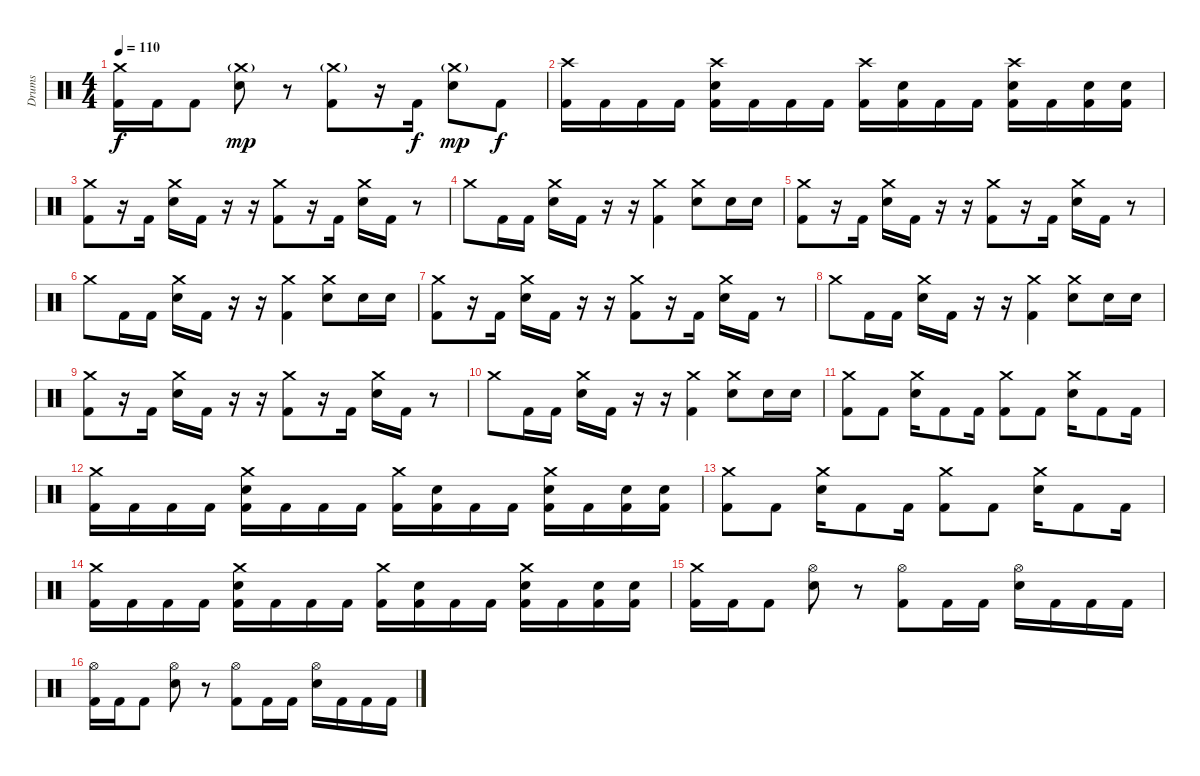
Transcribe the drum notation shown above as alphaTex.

\track ("Drums" "Drums") {instrument percussion}
\staff {score}
\articulation defaults
\ts (4 4)
\tempo 110
\clef neutral
\ks c
("Crash medium (hit)" "Kick (hit) 2").16{dy f} "Kick (hit) 2".16 "Kick (hit) 2".8 ("Crash medium (hit)"{g} "Electric Snare (hit)").8{dy mp} r.8 ("Crash medium (hit)"{g} "Kick (hit) 2").8 r.16 "Kick (hit) 2".16{dy f} ("Crash medium (hit)"{g} "Electric Snare (hit)").8{dy mp} "Kick (hit) 2".8{dy f} |
("Crash high (hit)" "Kick (hit) 2").16 "Kick (hit) 2".16 "Kick (hit) 2".16 "Kick (hit) 2".16 ("Crash high (hit)" "Electric Snare (hit)" "Kick (hit) 2").16 "Kick (hit) 2".16 "Kick (hit) 2".16 "Kick (hit) 2".16 ("Crash high (hit)" "Kick (hit) 2").16 ("Electric Snare (hit)" "Kick (hit) 2").16 "Kick (hit) 2".16 "Kick (hit) 2".16 ("Crash high (hit)" "Electric Snare (hit)" "Kick (hit) 2").16 "Kick (hit) 2".16 ("Electric Snare (hit)" "Kick (hit) 2").16 ("Electric Snare (hit)" "Kick (hit) 2").16 |
("Crash medium (hit)" "Kick (hit) 2").8 r.16 "Kick (hit) 2".16 ("Crash medium (hit)" "Electric Snare (hit)").16 "Kick (hit) 2".16 r.16 r.16 ("Crash medium (hit)" "Kick (hit) 2").8 r.16 "Kick (hit) 2".16 ("Crash medium (hit)" "Electric Snare (hit)").16 "Kick (hit) 2".16 r.8 |
"Crash medium (hit)".8 "Kick (hit) 2".16 "Kick (hit) 2".16 ("Crash medium (hit)" "Electric Snare (hit)").16 "Kick (hit) 2".16 r.16 r.16 ("Crash medium (hit)" "Kick (hit) 2").4 ("Crash medium (hit)" "Electric Snare (hit)").8 "Electric Snare (hit)".16 "Electric Snare (hit)".16 |
("Crash medium (hit)" "Kick (hit) 2").8 r.16 "Kick (hit) 2".16 ("Crash medium (hit)" "Electric Snare (hit)").16 "Kick (hit) 2".16 r.16 r.16 ("Crash medium (hit)" "Kick (hit) 2").8 r.16 "Kick (hit) 2".16 ("Crash medium (hit)" "Electric Snare (hit)").16 "Kick (hit) 2".16 r.8 |
"Crash medium (hit)".8 "Kick (hit) 2".16 "Kick (hit) 2".16 ("Crash medium (hit)" "Electric Snare (hit)").16 "Kick (hit) 2".16 r.16 r.16 ("Crash medium (hit)" "Kick (hit) 2").4 ("Crash medium (hit)" "Electric Snare (hit)").8 "Electric Snare (hit)".16 "Electric Snare (hit)".16 |
("Crash medium (hit)" "Kick (hit) 2").8 r.16 "Kick (hit) 2".16 ("Crash medium (hit)" "Electric Snare (hit)").16 "Kick (hit) 2".16 r.16 r.16 ("Crash medium (hit)" "Kick (hit) 2").8 r.16 "Kick (hit) 2".16 ("Crash medium (hit)" "Electric Snare (hit)").16 "Kick (hit) 2".16 r.8 |
"Crash medium (hit)".8 "Kick (hit) 2".16 "Kick (hit) 2".16 ("Crash medium (hit)" "Electric Snare (hit)").16 "Kick (hit) 2".16 r.16 r.16 ("Crash medium (hit)" "Kick (hit) 2").4 ("Crash medium (hit)" "Electric Snare (hit)").8 "Electric Snare (hit)".16 "Electric Snare (hit)".16 |
("Crash medium (hit)" "Kick (hit) 2").8 r.16 "Kick (hit) 2".16 ("Crash medium (hit)" "Electric Snare (hit)").16 "Kick (hit) 2".16 r.16 r.16 ("Crash medium (hit)" "Kick (hit) 2").8 r.16 "Kick (hit) 2".16 ("Crash medium (hit)" "Electric Snare (hit)").16 "Kick (hit) 2".16 r.8 |
"Crash medium (hit)".8 "Kick (hit) 2".16 "Kick (hit) 2".16 ("Crash medium (hit)" "Electric Snare (hit)").16 "Kick (hit) 2".16 r.16 r.16 ("Crash medium (hit)" "Kick (hit) 2").4 ("Crash medium (hit)" "Electric Snare (hit)").8 "Electric Snare (hit)".16 "Electric Snare (hit)".16 |
("Crash medium (hit)" "Kick (hit) 2").8 "Kick (hit) 2".8 ("Crash medium (hit)" "Electric Snare (hit)").16 "Kick (hit) 2".8 "Kick (hit) 2".16 ("Crash medium (hit)" "Kick (hit) 2").8 "Kick (hit) 2".8 ("Crash medium (hit)" "Electric Snare (hit)").16 "Kick (hit) 2".8 "Kick (hit) 2".16 |
("Crash medium (hit)" "Kick (hit) 2").16 "Kick (hit) 2".16 "Kick (hit) 2".16 "Kick (hit) 2".16 ("Crash medium (hit)" "Electric Snare (hit)" "Kick (hit) 2").16 "Kick (hit) 2".16 "Kick (hit) 2".16 "Kick (hit) 2".16 ("Crash medium (hit)" "Kick (hit) 2").16 ("Electric Snare (hit)" "Kick (hit) 2").16 "Kick (hit) 2".16 "Kick (hit) 2".16 ("Crash medium (hit)" "Electric Snare (hit)" "Kick (hit) 2").16 "Kick (hit) 2".16 ("Electric Snare (hit)" "Kick (hit) 2").16 ("Electric Snare (hit)" "Kick (hit) 2").16 |
("Crash medium (hit)" "Kick (hit) 2").8 "Kick (hit) 2".8 ("Crash medium (hit)" "Electric Snare (hit)").16 "Kick (hit) 2".8 "Kick (hit) 2".16 ("Crash medium (hit)" "Kick (hit) 2").8 "Kick (hit) 2".8 ("Crash medium (hit)" "Electric Snare (hit)").16 "Kick (hit) 2".8 "Kick (hit) 2".16 |
("Crash medium (hit)" "Kick (hit) 2").16 "Kick (hit) 2".16 "Kick (hit) 2".16 "Kick (hit) 2".16 ("Crash medium (hit)" "Electric Snare (hit)" "Kick (hit) 2").16 "Kick (hit) 2".16 "Kick (hit) 2".16 "Kick (hit) 2".16 ("Crash medium (hit)" "Kick (hit) 2").16 ("Electric Snare (hit)" "Kick (hit) 2").16 "Kick (hit) 2".16 "Kick (hit) 2".16 ("Crash medium (hit)" "Electric Snare (hit)" "Kick (hit) 2").16 "Kick (hit) 2".16 ("Electric Snare (hit)" "Kick (hit) 2").16 ("Electric Snare (hit)" "Kick (hit) 2").16 |
("Crash medium (hit)" "Kick (hit) 2").16 "Kick (hit) 2".16 "Kick (hit) 2".8 ("Hi-Hat (open)" "Electric Snare (hit)").8 r.8 ("Hi-Hat (open)" "Kick (hit) 2").8 "Kick (hit) 2".16 "Kick (hit) 2".16 ("Hi-Hat (open)" "Electric Snare (hit)").16 "Kick (hit) 2".16 "Kick (hit) 2".16 "Kick (hit) 2".16 |
("Hi-Hat (open)" "Kick (hit) 2").16 "Kick (hit) 2".16 "Kick (hit) 2".8 ("Hi-Hat (open)" "Electric Snare (hit)").8 r.8 ("Hi-Hat (open)" "Kick (hit) 2").8 "Kick (hit) 2".16 "Kick (hit) 2".16 ("Hi-Hat (open)" "Electric Snare (hit)").16 "Kick (hit) 2".16 "Kick (hit) 2".16 "Kick (hit) 2".16
